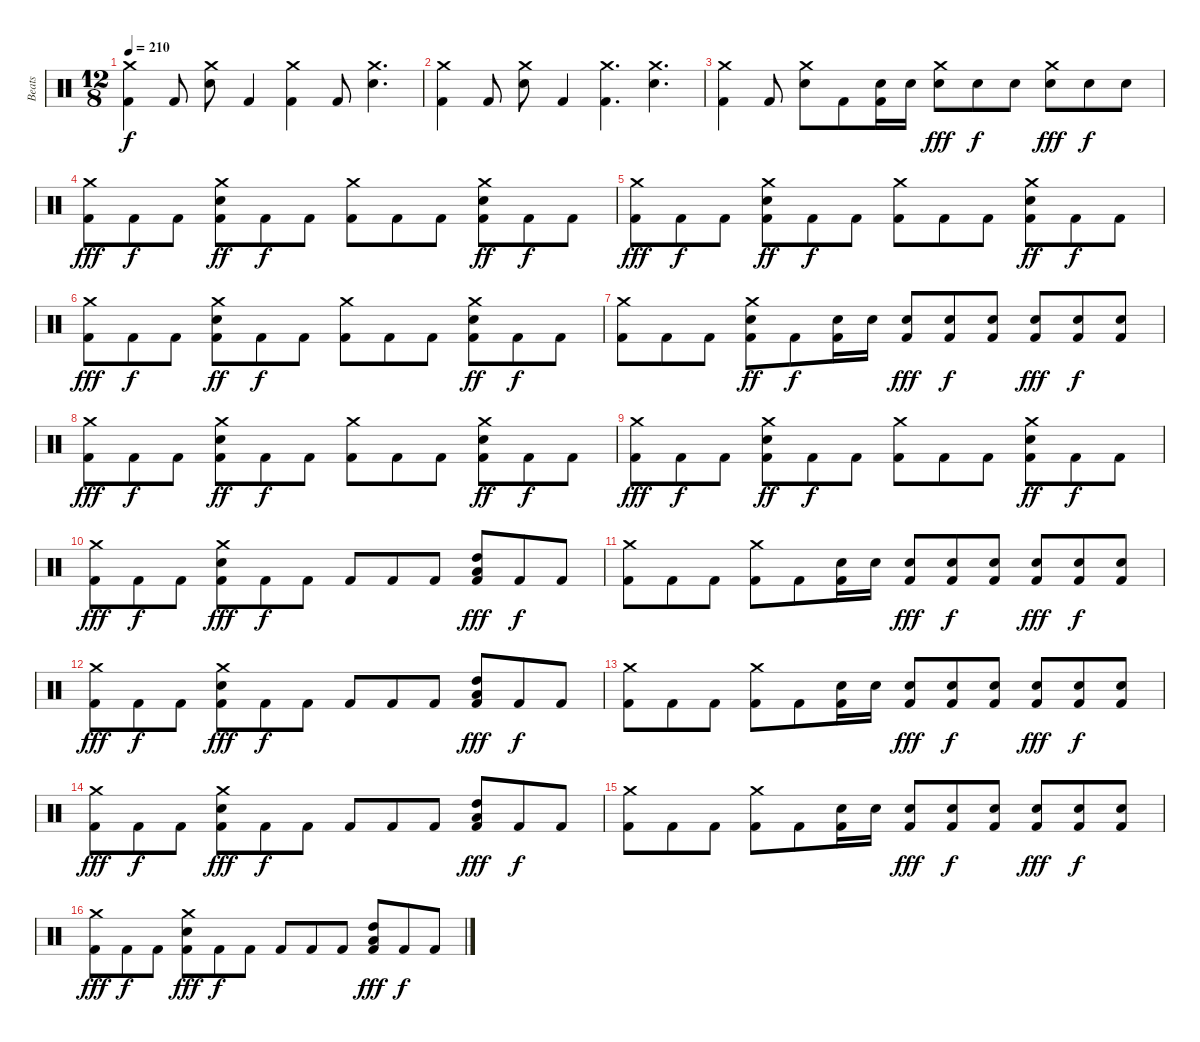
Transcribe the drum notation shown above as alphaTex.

\track ("Beats" "Beats") {instrument percussion}
\staff {score}
\articulation defaults
\ts (12 8)
\tempo 210
\clef neutral
\ks c
("Crash medium (hit)" "Kick (hit) 2").4{dy f} "Kick (hit) 2".8 ("Crash medium (hit)" "Snare (hit) 2").8 "Kick (hit) 2".4 ("Crash medium (hit)" "Kick (hit) 2").4 "Kick (hit) 2".8 ("Crash medium (hit)" "Snare (hit) 2").4{d} |
("Crash medium (hit)" "Kick (hit) 2").4 "Kick (hit) 2".8 ("Crash medium (hit)" "Snare (hit) 2").8 "Kick (hit) 2".4 ("Crash medium (hit)" "Kick (hit) 2").4{d} ("Crash medium (hit)" "Snare (hit) 2").4{d} |
("Crash medium (hit)" "Kick (hit) 2").4 "Kick (hit) 2".8 ("Crash medium (hit)" "Snare (hit) 2").8 "Kick (hit) 2".8 ("Snare (hit) 2" "Kick (hit) 2").16 "Snare (hit) 2".16 ("Crash medium (hit)" "Snare (hit) 2").8{dy fff} "Snare (hit) 2".8{dy f} "Snare (hit) 2".8 ("Crash medium (hit)" "Snare (hit) 2").8{dy fff} "Snare (hit) 2".8{dy f} "Snare (hit) 2".8 |
("Crash medium (hit)" "Kick (hit) 2").8{dy fff} "Kick (hit) 2".8{dy f} "Kick (hit) 2".8 ("Crash medium (hit)" "Snare (hit) 2" "Kick (hit) 2").8{dy ff} "Kick (hit) 2".8{dy f} "Kick (hit) 2".8 ("Crash medium (hit)" "Kick (hit) 2").8 "Kick (hit) 2".8 "Kick (hit) 2".8 ("Crash medium (hit)" "Snare (hit) 2" "Kick (hit) 2").8{dy ff} "Kick (hit) 2".8{dy f} "Kick (hit) 2".8 |
("Crash medium (hit)" "Kick (hit) 2").8{dy fff} "Kick (hit) 2".8{dy f} "Kick (hit) 2".8 ("Crash medium (hit)" "Snare (hit) 2" "Kick (hit) 2").8{dy ff} "Kick (hit) 2".8{dy f} "Kick (hit) 2".8 ("Crash medium (hit)" "Kick (hit) 2").8 "Kick (hit) 2".8 "Kick (hit) 2".8 ("Crash medium (hit)" "Snare (hit) 2" "Kick (hit) 2").8{dy ff} "Kick (hit) 2".8{dy f} "Kick (hit) 2".8 |
("Crash medium (hit)" "Kick (hit) 2").8{dy fff} "Kick (hit) 2".8{dy f} "Kick (hit) 2".8 ("Crash medium (hit)" "Snare (hit) 2" "Kick (hit) 2").8{dy ff} "Kick (hit) 2".8{dy f} "Kick (hit) 2".8 ("Crash medium (hit)" "Kick (hit) 2").8 "Kick (hit) 2".8 "Kick (hit) 2".8 ("Crash medium (hit)" "Snare (hit) 2" "Kick (hit) 2").8{dy ff} "Kick (hit) 2".8{dy f} "Kick (hit) 2".8 |
("Crash medium (hit)" "Kick (hit) 2").8 "Kick (hit) 2".8 "Kick (hit) 2".8 ("Crash medium (hit)" "Snare (hit) 2" "Kick (hit) 2").8{dy ff} "Kick (hit) 2".8{dy f} ("Snare (hit) 2" "Kick (hit) 2").16 "Snare (hit) 2".16 ("Snare (hit) 2" "Kick (hit) 2").8{dy fff} ("Snare (hit) 2" "Kick (hit) 2").8{dy f} ("Snare (hit) 2" "Kick (hit) 2").8 ("Snare (hit) 2" "Kick (hit) 2").8{dy fff} ("Snare (hit) 2" "Kick (hit) 2").8{dy f} ("Snare (hit) 2" "Kick (hit) 2").8 |
("Crash medium (hit)" "Kick (hit) 2").8{dy fff} "Kick (hit) 2".8{dy f} "Kick (hit) 2".8 ("Crash medium (hit)" "Snare (hit) 2" "Kick (hit) 2").8{dy ff} "Kick (hit) 2".8{dy f} "Kick (hit) 2".8 ("Crash medium (hit)" "Kick (hit) 2").8 "Kick (hit) 2".8 "Kick (hit) 2".8 ("Crash medium (hit)" "Snare (hit) 2" "Kick (hit) 2").8{dy ff} "Kick (hit) 2".8{dy f} "Kick (hit) 2".8 |
("Crash medium (hit)" "Kick (hit) 2").8{dy fff} "Kick (hit) 2".8{dy f} "Kick (hit) 2".8 ("Crash medium (hit)" "Snare (hit) 2" "Kick (hit) 2").8{dy ff} "Kick (hit) 2".8{dy f} "Kick (hit) 2".8 ("Crash medium (hit)" "Kick (hit) 2").8 "Kick (hit) 2".8 "Kick (hit) 2".8 ("Crash medium (hit)" "Snare (hit) 2" "Kick (hit) 2").8{dy ff} "Kick (hit) 2".8{dy f} "Kick (hit) 2".8 |
("Crash medium (hit)" "Kick (hit) 2").8{dy fff} "Kick (hit) 2".8{dy f} "Kick (hit) 2".8 ("Crash medium (hit)" "Snare (hit) 2" "Kick (hit) 2").8{dy fff} "Kick (hit) 2".8{dy f} "Kick (hit) 2".8 "Kick (hit) 2".8 "Kick (hit) 2".8 "Kick (hit) 2".8 ("High Tom (hit)" "Low Tom (hit)" "Kick (hit) 2").8{dy fff} "Kick (hit) 2".8{dy f} "Kick (hit) 2".8 |
("Crash medium (hit)" "Kick (hit) 2").8 "Kick (hit) 2".8 "Kick (hit) 2".8 ("Crash medium (hit)" "Kick (hit) 2").8 "Kick (hit) 2".8 ("Snare (hit) 2" "Kick (hit) 2").16 "Snare (hit) 2".16 ("Snare (hit) 2" "Kick (hit) 2").8{dy fff} ("Snare (hit) 2" "Kick (hit) 2").8{dy f} ("Snare (hit) 2" "Kick (hit) 2").8 ("Snare (hit) 2" "Kick (hit) 2").8{dy fff} ("Snare (hit) 2" "Kick (hit) 2").8{dy f} ("Snare (hit) 2" "Kick (hit) 2").8 |
("Crash medium (hit)" "Kick (hit) 2").8{dy fff} "Kick (hit) 2".8{dy f} "Kick (hit) 2".8 ("Crash medium (hit)" "Snare (hit) 2" "Kick (hit) 2").8{dy fff} "Kick (hit) 2".8{dy f} "Kick (hit) 2".8 "Kick (hit) 2".8 "Kick (hit) 2".8 "Kick (hit) 2".8 ("High Tom (hit)" "Low Tom (hit)" "Kick (hit) 2").8{dy fff} "Kick (hit) 2".8{dy f} "Kick (hit) 2".8 |
("Crash medium (hit)" "Kick (hit) 2").8 "Kick (hit) 2".8 "Kick (hit) 2".8 ("Crash medium (hit)" "Kick (hit) 2").8 "Kick (hit) 2".8 ("Snare (hit) 2" "Kick (hit) 2").16 "Snare (hit) 2".16 ("Snare (hit) 2" "Kick (hit) 2").8{dy fff} ("Snare (hit) 2" "Kick (hit) 2").8{dy f} ("Snare (hit) 2" "Kick (hit) 2").8 ("Snare (hit) 2" "Kick (hit) 2").8{dy fff} ("Snare (hit) 2" "Kick (hit) 2").8{dy f} ("Snare (hit) 2" "Kick (hit) 2").8 |
("Crash medium (hit)" "Kick (hit) 2").8{dy fff} "Kick (hit) 2".8{dy f} "Kick (hit) 2".8 ("Crash medium (hit)" "Snare (hit) 2" "Kick (hit) 2").8{dy fff} "Kick (hit) 2".8{dy f} "Kick (hit) 2".8 "Kick (hit) 2".8 "Kick (hit) 2".8 "Kick (hit) 2".8 ("High Tom (hit)" "Low Tom (hit)" "Kick (hit) 2").8{dy fff} "Kick (hit) 2".8{dy f} "Kick (hit) 2".8 |
("Crash medium (hit)" "Kick (hit) 2").8 "Kick (hit) 2".8 "Kick (hit) 2".8 ("Crash medium (hit)" "Kick (hit) 2").8 "Kick (hit) 2".8 ("Snare (hit) 2" "Kick (hit) 2").16 "Snare (hit) 2".16 ("Snare (hit) 2" "Kick (hit) 2").8{dy fff} ("Snare (hit) 2" "Kick (hit) 2").8{dy f} ("Snare (hit) 2" "Kick (hit) 2").8 ("Snare (hit) 2" "Kick (hit) 2").8{dy fff} ("Snare (hit) 2" "Kick (hit) 2").8{dy f} ("Snare (hit) 2" "Kick (hit) 2").8 |
("Crash medium (hit)" "Kick (hit) 2").8{dy fff} "Kick (hit) 2".8{dy f} "Kick (hit) 2".8 ("Crash medium (hit)" "Snare (hit) 2" "Kick (hit) 2").8{dy fff} "Kick (hit) 2".8{dy f} "Kick (hit) 2".8 "Kick (hit) 2".8 "Kick (hit) 2".8 "Kick (hit) 2".8 ("High Tom (hit)" "Low Tom (hit)" "Kick (hit) 2").8{dy fff} "Kick (hit) 2".8{dy f} "Kick (hit) 2".8
